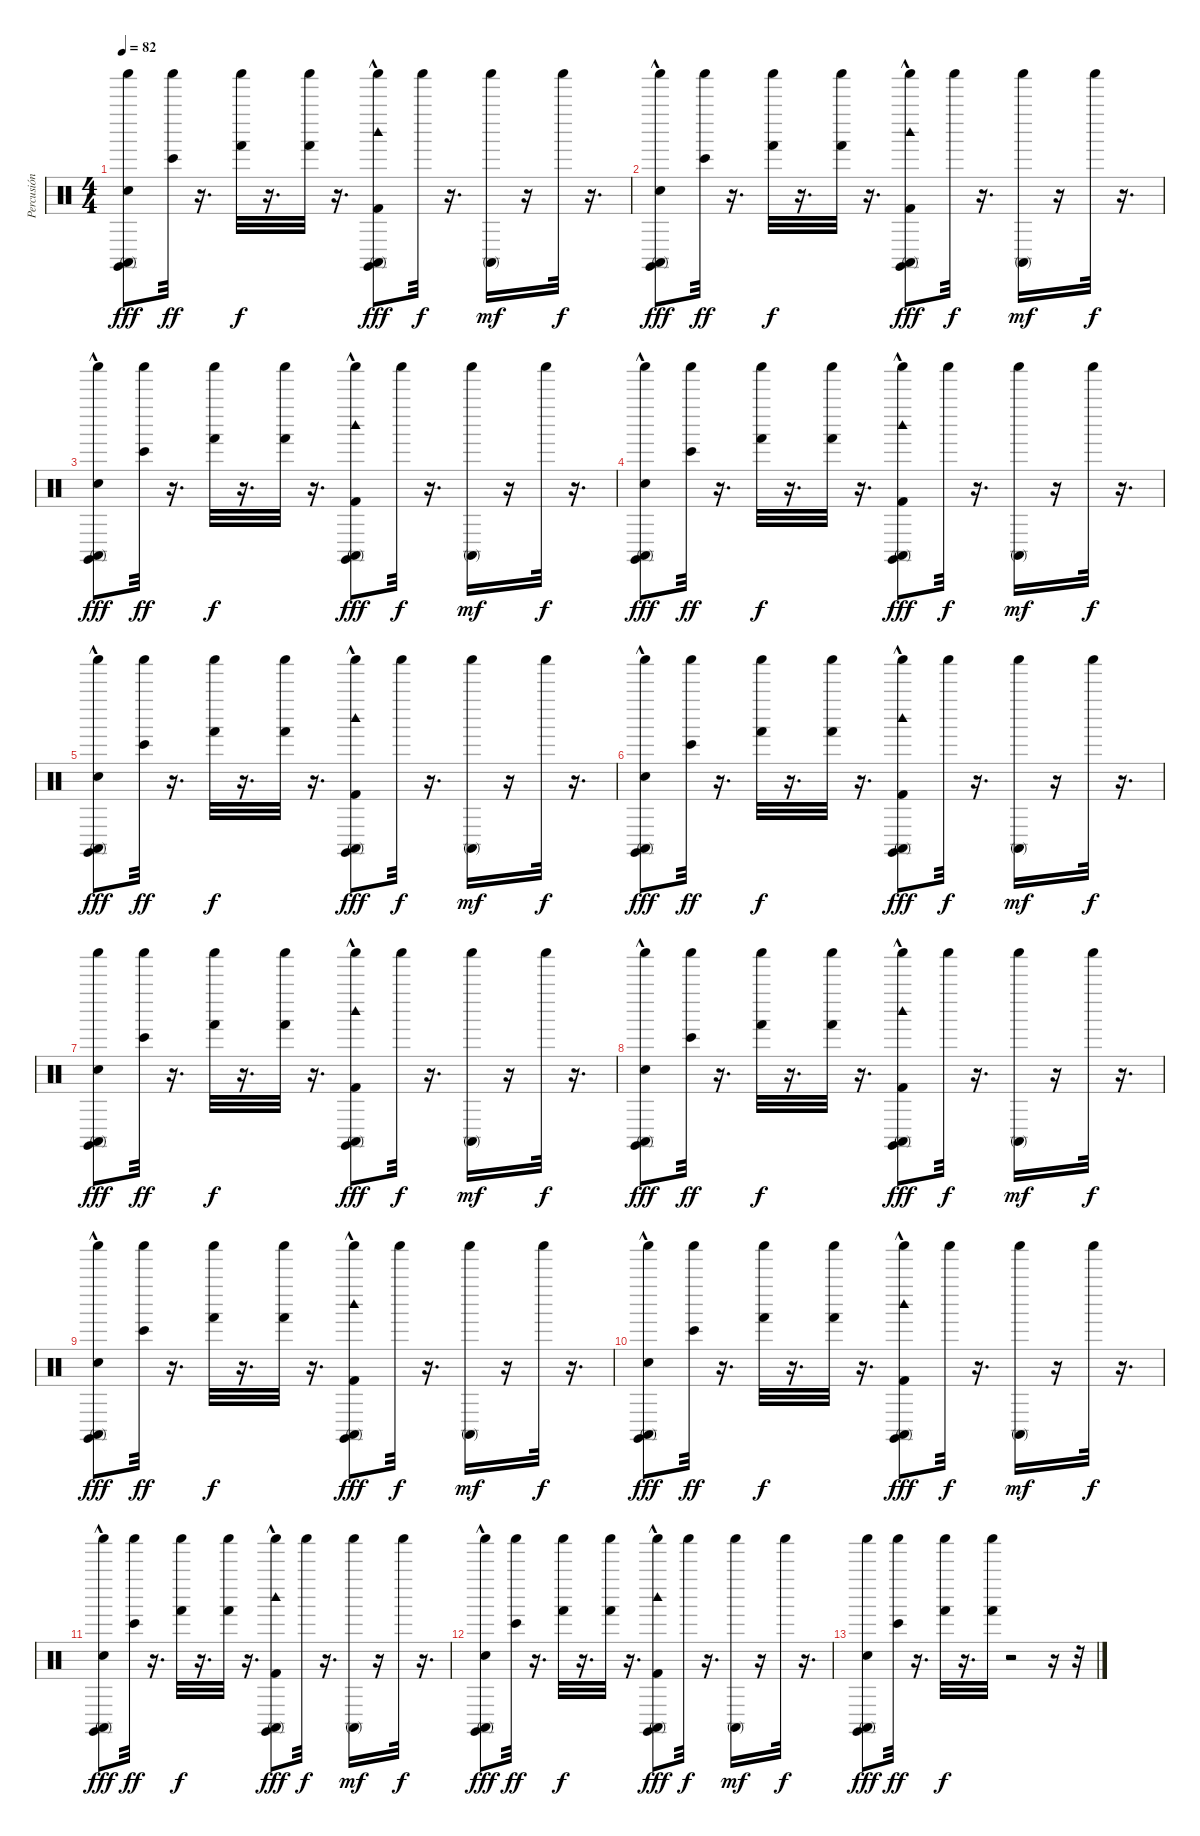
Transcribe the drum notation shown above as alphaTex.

\track ("Percusión" "Percusión") {instrument percussion}
\staff {score}
\articulation defaults
\ts (4 4)
\tempo 82
\clef neutral
\ks c
("Claves (hit)" "Shaker (hit)" "Conga high (mute)" "Electric Snare (hit)").8{dy fff} ("Shaker (hit)" "Bongo High (hit)").32{dy ff} r.16{d} ("Shaker (hit)" "Hand (hit)").32{dy f} r.16{d} ("Shaker (hit)" "Hand (hit)").32 r.16{d} ("Woodblock high (hit)" "Conga high (mute)" "Shaker (hit)" "Claves (hit)" "Kick (hit) 2"{hac}).8{dy fff} "Shaker (hit)".32{dy f} r.16{d} ("Shaker (hit)" "Conga high (mute)").16{dy mf} r.16 "Shaker (hit)".32{dy f} r.16{d} |
("Claves (hit)" "Shaker (hit)" "Conga high (mute)" "Electric Snare (hit)"{hac}).8{dy fff} ("Shaker (hit)" "Bongo High (hit)").32{dy ff} r.16{d} ("Shaker (hit)" "Hand (hit)").32{dy f} r.16{d} ("Shaker (hit)" "Hand (hit)").32 r.16{d} ("Woodblock high (hit)" "Conga high (mute)" "Shaker (hit)" "Claves (hit)" "Kick (hit) 2"{hac}).8{dy fff} "Shaker (hit)".32{dy f} r.16{d} ("Shaker (hit)" "Conga high (mute)").16{dy mf} r.16 "Shaker (hit)".32{dy f} r.16{d} |
("Claves (hit)" "Shaker (hit)" "Conga high (mute)" "Electric Snare (hit)"{hac}).8{dy fff} ("Shaker (hit)" "Bongo High (hit)").32{dy ff} r.16{d} ("Shaker (hit)" "Hand (hit)").32{dy f} r.16{d} ("Shaker (hit)" "Hand (hit)").32 r.16{d} ("Woodblock high (hit)" "Conga high (mute)" "Shaker (hit)" "Claves (hit)" "Kick (hit) 2"{hac}).8{dy fff} "Shaker (hit)".32{dy f} r.16{d} ("Shaker (hit)" "Conga high (mute)").16{dy mf} r.16 "Shaker (hit)".32{dy f} r.16{d} |
("Claves (hit)" "Shaker (hit)" "Conga high (mute)" "Electric Snare (hit)"{hac}).8{dy fff} ("Shaker (hit)" "Bongo High (hit)").32{dy ff} r.16{d} ("Shaker (hit)" "Hand (hit)").32{dy f} r.16{d} ("Shaker (hit)" "Hand (hit)").32 r.16{d} ("Woodblock high (hit)" "Conga high (mute)" "Shaker (hit)" "Claves (hit)" "Kick (hit) 2"{hac}).8{dy fff} "Shaker (hit)".32{dy f} r.16{d} ("Shaker (hit)" "Conga high (mute)").16{dy mf} r.16 "Shaker (hit)".32{dy f} r.16{d} |
("Claves (hit)" "Shaker (hit)" "Conga high (mute)" "Electric Snare (hit)"{hac}).8{dy fff} ("Shaker (hit)" "Bongo High (hit)").32{dy ff} r.16{d} ("Shaker (hit)" "Hand (hit)").32{dy f} r.16{d} ("Shaker (hit)" "Hand (hit)").32 r.16{d} ("Woodblock high (hit)" "Conga high (mute)" "Shaker (hit)" "Claves (hit)" "Kick (hit) 2"{hac}).8{dy fff} "Shaker (hit)".32{dy f} r.16{d} ("Shaker (hit)" "Conga high (mute)").16{dy mf} r.16 "Shaker (hit)".32{dy f} r.16{d} |
("Claves (hit)" "Shaker (hit)" "Conga high (mute)" "Electric Snare (hit)"{hac}).8{dy fff} ("Shaker (hit)" "Bongo High (hit)").32{dy ff} r.16{d} ("Shaker (hit)" "Hand (hit)").32{dy f} r.16{d} ("Shaker (hit)" "Hand (hit)").32 r.16{d} ("Woodblock high (hit)" "Conga high (mute)" "Shaker (hit)" "Claves (hit)" "Kick (hit) 2"{hac}).8{dy fff} "Shaker (hit)".32{dy f} r.16{d} ("Shaker (hit)" "Conga high (mute)").16{dy mf} r.16 "Shaker (hit)".32{dy f} r.16{d} |
("Claves (hit)" "Shaker (hit)" "Conga high (mute)" "Electric Snare (hit)").8{dy fff} ("Shaker (hit)" "Bongo High (hit)").32{dy ff} r.16{d} ("Shaker (hit)" "Hand (hit)").32{dy f} r.16{d} ("Shaker (hit)" "Hand (hit)").32 r.16{d} ("Woodblock high (hit)" "Conga high (mute)" "Shaker (hit)" "Claves (hit)" "Kick (hit) 2"{hac}).8{dy fff volume 11} "Shaker (hit)".32{dy f volume 11} r.16{d} ("Shaker (hit)" "Conga high (mute)").16{dy mf volume 11} r.16 "Shaker (hit)".32{dy f volume 10} r.16{d} |
("Claves (hit)" "Shaker (hit)" "Conga high (mute)" "Electric Snare (hit)"{hac}).8{dy fff volume 10} ("Shaker (hit)" "Bongo High (hit)").32{dy ff volume 10} r.16{d} ("Shaker (hit)" "Hand (hit)").32{dy f volume 10} r.16{d} ("Shaker (hit)" "Hand (hit)").32{volume 9} r.16{d} ("Woodblock high (hit)" "Conga high (mute)" "Shaker (hit)" "Claves (hit)" "Kick (hit) 2"{hac}).8{dy fff volume 9} "Shaker (hit)".32{dy f volume 9} r.16{d} ("Shaker (hit)" "Conga high (mute)").16{dy mf volume 8} r.16 "Shaker (hit)".32{dy f volume 8} r.16{d} |
("Claves (hit)" "Shaker (hit)" "Conga high (mute)" "Electric Snare (hit)"{hac}).8{dy fff volume 8} ("Shaker (hit)" "Bongo High (hit)").32{dy ff volume 8} r.16{d} ("Shaker (hit)" "Hand (hit)").32{dy f volume 7} r.16{d} ("Shaker (hit)" "Hand (hit)").32{volume 7} r.16{d} ("Woodblock high (hit)" "Conga high (mute)" "Shaker (hit)" "Claves (hit)" "Kick (hit) 2"{hac}).8{dy fff volume 7} "Shaker (hit)".32{dy f volume 6} r.16{d} ("Shaker (hit)" "Conga high (mute)").16{dy mf volume 6} r.16 "Shaker (hit)".32{dy f volume 6} r.16{d} |
("Claves (hit)" "Shaker (hit)" "Conga high (mute)" "Electric Snare (hit)"{hac}).8{dy fff volume 6} ("Shaker (hit)" "Bongo High (hit)").32{dy ff volume 5} r.16{d} ("Shaker (hit)" "Hand (hit)").32{dy f volume 5} r.16{d} ("Shaker (hit)" "Hand (hit)").32{volume 5} r.16{d} ("Woodblock high (hit)" "Conga high (mute)" "Shaker (hit)" "Claves (hit)" "Kick (hit) 2"{hac}).8{dy fff volume 4} "Shaker (hit)".32{dy f volume 4} r.16{d} ("Shaker (hit)" "Conga high (mute)").16{dy mf volume 4} r.16 "Shaker (hit)".32{dy f volume 4} r.16{d} |
("Claves (hit)" "Shaker (hit)" "Conga high (mute)" "Electric Snare (hit)"{hac}).8{dy fff volume 3} ("Shaker (hit)" "Bongo High (hit)").32{dy ff volume 3} r.16{d} ("Shaker (hit)" "Hand (hit)").32{dy f volume 3} r.16{d} ("Shaker (hit)" "Hand (hit)").32{volume 2} r.16{d} ("Woodblock high (hit)" "Conga high (mute)" "Shaker (hit)" "Claves (hit)" "Kick (hit) 2"{hac}).8{dy fff volume 2} "Shaker (hit)".32{dy f volume 2} r.16{d} ("Shaker (hit)" "Conga high (mute)").16{dy mf volume 2} r.16 "Shaker (hit)".32{dy f volume 1} r.16{d} |
("Claves (hit)" "Shaker (hit)" "Conga high (mute)" "Electric Snare (hit)"{hac}).8{dy fff volume 1} ("Shaker (hit)" "Bongo High (hit)").32{dy ff volume 1} r.16{d} ("Shaker (hit)" "Hand (hit)").32{dy f volume 0} r.16{d} ("Shaker (hit)" "Hand (hit)").32{volume 0} r.16{d} ("Woodblock high (hit)" "Conga high (mute)" "Shaker (hit)" "Claves (hit)" "Kick (hit) 2"{hac}).8{dy fff volume 0} "Shaker (hit)".32{dy f} r.16{d} ("Shaker (hit)" "Conga high (mute)").16{dy mf} r.16 "Shaker (hit)".32{dy f} r.16{d} |
("Claves (hit)" "Shaker (hit)" "Conga high (mute)" "Electric Snare (hit)").8{dy fff} ("Shaker (hit)" "Bongo High (hit)").32{dy ff} r.16{d} ("Shaker (hit)" "Hand (hit)").32{dy f} r.16{d} ("Shaker (hit)" "Hand (hit)").32 r.2 r.16 r.32
